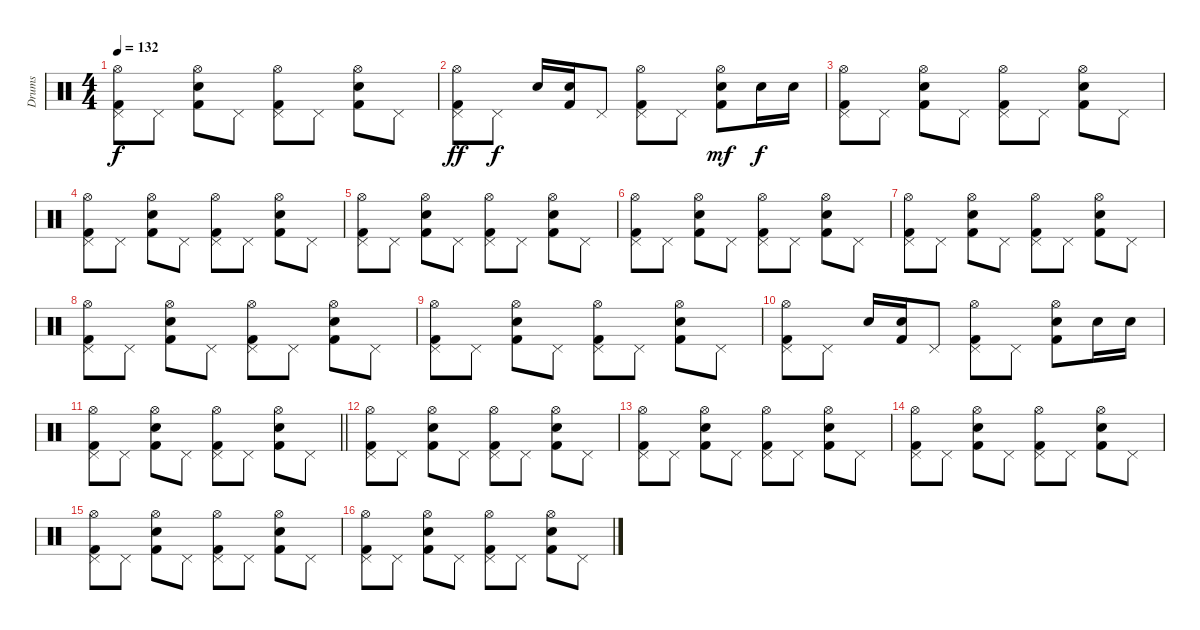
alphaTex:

\track ("Drums" "Drums") {instrument percussion}
\staff {score}
\articulation defaults
\ts (4 4)
\tempo 132
\clef neutral
\ks c
("Hi-Hat (open)" "Pedal Hi-Hat (hit)" "Kick (hit) 2").8{dy f} "Pedal Hi-Hat (hit)".8 ("Electric Snare (hit)" "Hi-Hat (open)" "Kick (hit) 2").8 "Pedal Hi-Hat (hit)".8 ("Hi-Hat (open)" "Pedal Hi-Hat (hit)" "Kick (hit) 2").8 "Pedal Hi-Hat (hit)".8 ("Electric Snare (hit)" "Hi-Hat (open)" "Kick (hit) 2").8 "Pedal Hi-Hat (hit)".8 |
("Hi-Hat (open)" "Pedal Hi-Hat (hit)" "Kick (hit) 2").8{dy ff} "Pedal Hi-Hat (hit)".8{dy f} "Electric Snare (hit)".16 ("Electric Snare (hit)" "Kick (hit) 2").16 "Pedal Hi-Hat (hit)".8 ("Hi-Hat (open)" "Pedal Hi-Hat (hit)" "Kick (hit) 2").8 "Pedal Hi-Hat (hit)".8 ("Electric Snare (hit)" "Hi-Hat (open)" "Kick (hit) 2").8{dy mf} "Electric Snare (hit)".16{dy f} "Electric Snare (hit)".16 |
("Hi-Hat (open)" "Pedal Hi-Hat (hit)" "Kick (hit) 2").8 "Pedal Hi-Hat (hit)".8 ("Electric Snare (hit)" "Hi-Hat (open)" "Kick (hit) 2").8 "Pedal Hi-Hat (hit)".8 ("Hi-Hat (open)" "Pedal Hi-Hat (hit)" "Kick (hit) 2").8 "Pedal Hi-Hat (hit)".8 ("Electric Snare (hit)" "Hi-Hat (open)" "Kick (hit) 2").8 "Pedal Hi-Hat (hit)".8 |
("Hi-Hat (open)" "Pedal Hi-Hat (hit)" "Kick (hit) 2").8 "Pedal Hi-Hat (hit)".8 ("Electric Snare (hit)" "Hi-Hat (open)" "Kick (hit) 2").8 "Pedal Hi-Hat (hit)".8 ("Hi-Hat (open)" "Pedal Hi-Hat (hit)" "Kick (hit) 2").8 "Pedal Hi-Hat (hit)".8 ("Electric Snare (hit)" "Hi-Hat (open)" "Kick (hit) 2").8 "Pedal Hi-Hat (hit)".8 |
("Hi-Hat (open)" "Pedal Hi-Hat (hit)" "Kick (hit) 2").8 "Pedal Hi-Hat (hit)".8 ("Electric Snare (hit)" "Hi-Hat (open)" "Kick (hit) 2").8 "Pedal Hi-Hat (hit)".8 ("Hi-Hat (open)" "Pedal Hi-Hat (hit)" "Kick (hit) 2").8 "Pedal Hi-Hat (hit)".8 ("Electric Snare (hit)" "Hi-Hat (open)" "Kick (hit) 2").8 "Pedal Hi-Hat (hit)".8 |
("Hi-Hat (open)" "Pedal Hi-Hat (hit)" "Kick (hit) 2").8 "Pedal Hi-Hat (hit)".8 ("Electric Snare (hit)" "Hi-Hat (open)" "Kick (hit) 2").8 "Pedal Hi-Hat (hit)".8 ("Hi-Hat (open)" "Pedal Hi-Hat (hit)" "Kick (hit) 2").8 "Pedal Hi-Hat (hit)".8 ("Electric Snare (hit)" "Hi-Hat (open)" "Kick (hit) 2").8 "Pedal Hi-Hat (hit)".8 |
("Hi-Hat (open)" "Pedal Hi-Hat (hit)" "Kick (hit) 2").8 "Pedal Hi-Hat (hit)".8 ("Electric Snare (hit)" "Hi-Hat (open)" "Kick (hit) 2").8 "Pedal Hi-Hat (hit)".8 ("Hi-Hat (open)" "Pedal Hi-Hat (hit)" "Kick (hit) 2").8 "Pedal Hi-Hat (hit)".8 ("Electric Snare (hit)" "Hi-Hat (open)" "Kick (hit) 2").8 "Pedal Hi-Hat (hit)".8 |
("Hi-Hat (open)" "Pedal Hi-Hat (hit)" "Kick (hit) 2").8 "Pedal Hi-Hat (hit)".8 ("Electric Snare (hit)" "Hi-Hat (open)" "Kick (hit) 2").8 "Pedal Hi-Hat (hit)".8 ("Hi-Hat (open)" "Pedal Hi-Hat (hit)" "Kick (hit) 2").8 "Pedal Hi-Hat (hit)".8 ("Electric Snare (hit)" "Hi-Hat (open)" "Kick (hit) 2").8 "Pedal Hi-Hat (hit)".8 |
("Hi-Hat (open)" "Pedal Hi-Hat (hit)" "Kick (hit) 2").8 "Pedal Hi-Hat (hit)".8 ("Electric Snare (hit)" "Hi-Hat (open)" "Kick (hit) 2").8 "Pedal Hi-Hat (hit)".8 ("Hi-Hat (open)" "Pedal Hi-Hat (hit)" "Kick (hit) 2").8 "Pedal Hi-Hat (hit)".8 ("Electric Snare (hit)" "Hi-Hat (open)" "Kick (hit) 2").8 "Pedal Hi-Hat (hit)".8 |
("Hi-Hat (open)" "Pedal Hi-Hat (hit)" "Kick (hit) 2").8 "Pedal Hi-Hat (hit)".8 "Electric Snare (hit)".16 ("Electric Snare (hit)" "Kick (hit) 2").16 "Pedal Hi-Hat (hit)".8 ("Hi-Hat (open)" "Pedal Hi-Hat (hit)" "Kick (hit) 2").8 "Pedal Hi-Hat (hit)".8 ("Electric Snare (hit)" "Hi-Hat (open)" "Kick (hit) 2").8 "Electric Snare (hit)".16 "Electric Snare (hit)".16 |
\barLineRight lightlight
("Hi-Hat (open)" "Pedal Hi-Hat (hit)" "Kick (hit) 2").8{volume 11} "Pedal Hi-Hat (hit)".8 ("Electric Snare (hit)" "Hi-Hat (open)" "Kick (hit) 2").8 "Pedal Hi-Hat (hit)".8 ("Hi-Hat (open)" "Pedal Hi-Hat (hit)" "Kick (hit) 2").8 "Pedal Hi-Hat (hit)".8 ("Electric Snare (hit)" "Hi-Hat (open)" "Kick (hit) 2").8 "Pedal Hi-Hat (hit)".8 |
\section ("" "")
("Hi-Hat (open)" "Pedal Hi-Hat (hit)" "Kick (hit) 2").8 "Pedal Hi-Hat (hit)".8 ("Electric Snare (hit)" "Hi-Hat (open)" "Kick (hit) 2").8 "Pedal Hi-Hat (hit)".8 ("Hi-Hat (open)" "Pedal Hi-Hat (hit)" "Kick (hit) 2").8 "Pedal Hi-Hat (hit)".8 ("Electric Snare (hit)" "Hi-Hat (open)" "Kick (hit) 2").8 "Pedal Hi-Hat (hit)".8 |
("Hi-Hat (open)" "Pedal Hi-Hat (hit)" "Kick (hit) 2").8{volume 7} "Pedal Hi-Hat (hit)".8 ("Electric Snare (hit)" "Hi-Hat (open)" "Kick (hit) 2").8 "Pedal Hi-Hat (hit)".8 ("Hi-Hat (open)" "Pedal Hi-Hat (hit)" "Kick (hit) 2").8 "Pedal Hi-Hat (hit)".8 ("Electric Snare (hit)" "Hi-Hat (open)" "Kick (hit) 2").8 "Pedal Hi-Hat (hit)".8 |
("Hi-Hat (open)" "Pedal Hi-Hat (hit)" "Kick (hit) 2").8 "Pedal Hi-Hat (hit)".8 ("Electric Snare (hit)" "Hi-Hat (open)" "Kick (hit) 2").8 "Pedal Hi-Hat (hit)".8 ("Hi-Hat (open)" "Pedal Hi-Hat (hit)" "Kick (hit) 2").8 "Pedal Hi-Hat (hit)".8 ("Electric Snare (hit)" "Hi-Hat (open)" "Kick (hit) 2").8 "Pedal Hi-Hat (hit)".8 |
("Hi-Hat (open)" "Pedal Hi-Hat (hit)" "Kick (hit) 2").8 "Pedal Hi-Hat (hit)".8 ("Electric Snare (hit)" "Hi-Hat (open)" "Kick (hit) 2").8 "Pedal Hi-Hat (hit)".8 ("Hi-Hat (open)" "Pedal Hi-Hat (hit)" "Kick (hit) 2").8 "Pedal Hi-Hat (hit)".8 ("Electric Snare (hit)" "Hi-Hat (open)" "Kick (hit) 2").8 "Pedal Hi-Hat (hit)".8 |
("Hi-Hat (open)" "Pedal Hi-Hat (hit)" "Kick (hit) 2").8{volume 4} "Pedal Hi-Hat (hit)".8 ("Electric Snare (hit)" "Hi-Hat (open)" "Kick (hit) 2").8 "Pedal Hi-Hat (hit)".8 ("Hi-Hat (open)" "Pedal Hi-Hat (hit)" "Kick (hit) 2").8 "Pedal Hi-Hat (hit)".8 ("Electric Snare (hit)" "Hi-Hat (open)" "Kick (hit) 2").8 "Pedal Hi-Hat (hit)".8
